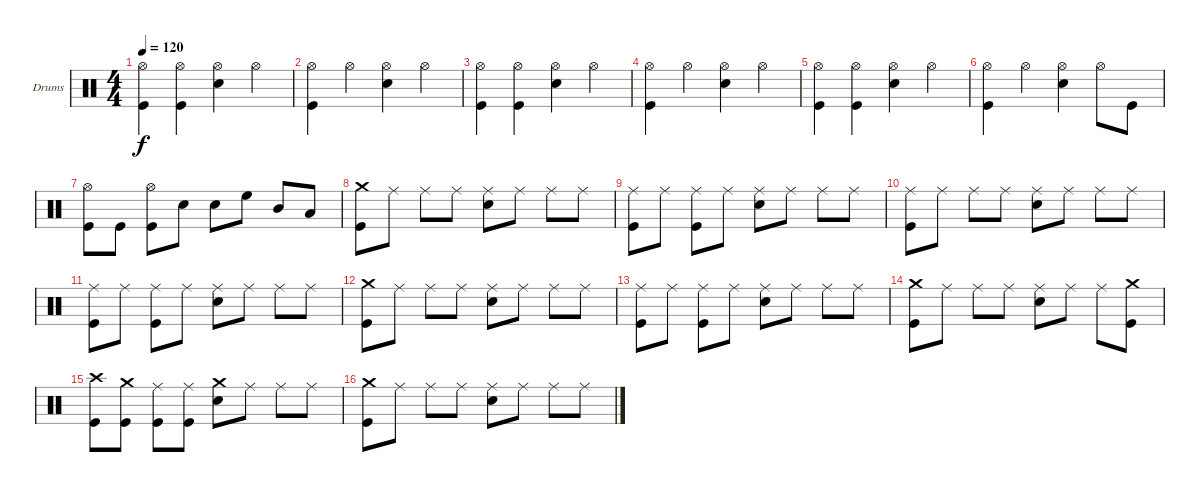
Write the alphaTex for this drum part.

\bracketExtendMode groupsimilarinstruments
\firstSystemTrackNameOrientation horizontal
\otherSystemsTrackNameOrientation horizontal
\track ("Drumkit (Christoph)" "Drums") {instrument percussion}
\staff {score}
\articulation defaults
\ts (4 4)
\tempo 120
\clef neutral
\ks c
("Hi-Hat (open)" "Kick (hit)").4{dy f} ("Hi-Hat (open)" "Kick (hit)").4 ("Hi-Hat (open)" "Snare (hit) 2").4 "Hi-Hat (open)".4 |
("Hi-Hat (open)" "Kick (hit)").4 "Hi-Hat (open)".4 ("Hi-Hat (open)" "Snare (hit) 2").4 "Hi-Hat (open)".4 |
("Hi-Hat (open)" "Kick (hit)").4 ("Hi-Hat (open)" "Kick (hit)").4 ("Hi-Hat (open)" "Snare (hit) 2").4 "Hi-Hat (open)".4 |
("Hi-Hat (open)" "Kick (hit)").4 "Hi-Hat (open)".4 ("Hi-Hat (open)" "Snare (hit) 2").4 "Hi-Hat (open)".4 |
("Hi-Hat (open)" "Kick (hit)").4 ("Hi-Hat (open)" "Kick (hit)").4 ("Hi-Hat (open)" "Snare (hit) 2").4 "Hi-Hat (open)".4 |
("Hi-Hat (open)" "Kick (hit)").4 "Hi-Hat (open)".4 ("Hi-Hat (open)" "Snare (hit) 2").4 "Hi-Hat (open)".8 "Kick (hit)".8 |
("Hi-Hat (open)" "Kick (hit)").8 "Kick (hit)".8 ("Hi-Hat (open)" "Kick (hit)").8 "Snare (hit) 2".8 "Snare (hit) 2".8 "High Floor Tom (hit)".8 "Mid Tom (hit)".8 "Low Tom (hit)".8 |
("Crash medium (hit)" "Kick (hit)").8 "Ride (middle)".8 "Ride (middle)".8 "Ride (middle)".8 ("Ride (middle)" "Snare (hit) 2").8 "Ride (middle)".8 "Ride (middle)".8 "Ride (middle)".8 |
("Ride (middle)" "Kick (hit)").8 "Ride (middle)".8 ("Ride (middle)" "Kick (hit)").8 "Ride (middle)".8 ("Ride (middle)" "Snare (hit) 2").8 "Ride (middle)".8 "Ride (middle)".8 "Ride (middle)".8 |
("Ride (middle)" "Kick (hit)").8 "Ride (middle)".8 "Ride (middle)".8 "Ride (middle)".8 ("Ride (middle)" "Snare (hit) 2").8 "Ride (middle)".8 "Ride (middle)".8 "Ride (middle)".8 |
("Ride (middle)" "Kick (hit)").8 "Ride (middle)".8 ("Ride (middle)" "Kick (hit)").8 "Ride (middle)".8 ("Ride (middle)" "Snare (hit) 2").8 "Ride (middle)".8 "Ride (middle)".8 "Ride (middle)".8 |
("Crash medium (hit)" "Kick (hit)").8 "Ride (middle)".8 "Ride (middle)".8 "Ride (middle)".8 ("Ride (middle)" "Snare (hit) 2").8 "Ride (middle)".8 "Ride (middle)".8 "Ride (middle)".8 |
("Ride (middle)" "Kick (hit)").8 "Ride (middle)".8 ("Ride (middle)" "Kick (hit)").8 "Ride (middle)".8 ("Ride (middle)" "Snare (hit) 2").8 "Ride (middle)".8 "Ride (middle)".8 "Ride (middle)".8 |
("Crash medium (hit)" "Kick (hit)").8 "Ride (middle)".8 "Ride (middle)".8 "Ride (middle)".8 ("Ride (middle)" "Snare (hit) 2").8 "Ride (middle)".8 "Ride (middle)".8 ("Crash medium (hit)" "Kick (hit)").8 |
("Crash high (hit)" "Kick (hit)").8 ("Crash medium (hit)" "Kick (hit)").8 ("Ride (middle)" "Kick (hit)").8 ("Ride (middle)" "Kick (hit)").8 ("Crash medium (hit)" "Snare (hit) 2").8 "Ride (middle)".8 "Ride (middle)".8 "Ride (middle)".8 |
("Crash medium (hit)" "Kick (hit)").8 "Ride (middle)".8 "Ride (middle)".8 "Ride (middle)".8 ("Ride (middle)" "Snare (hit) 2").8 "Ride (middle)".8 "Ride (middle)".8 "Ride (middle)".8
